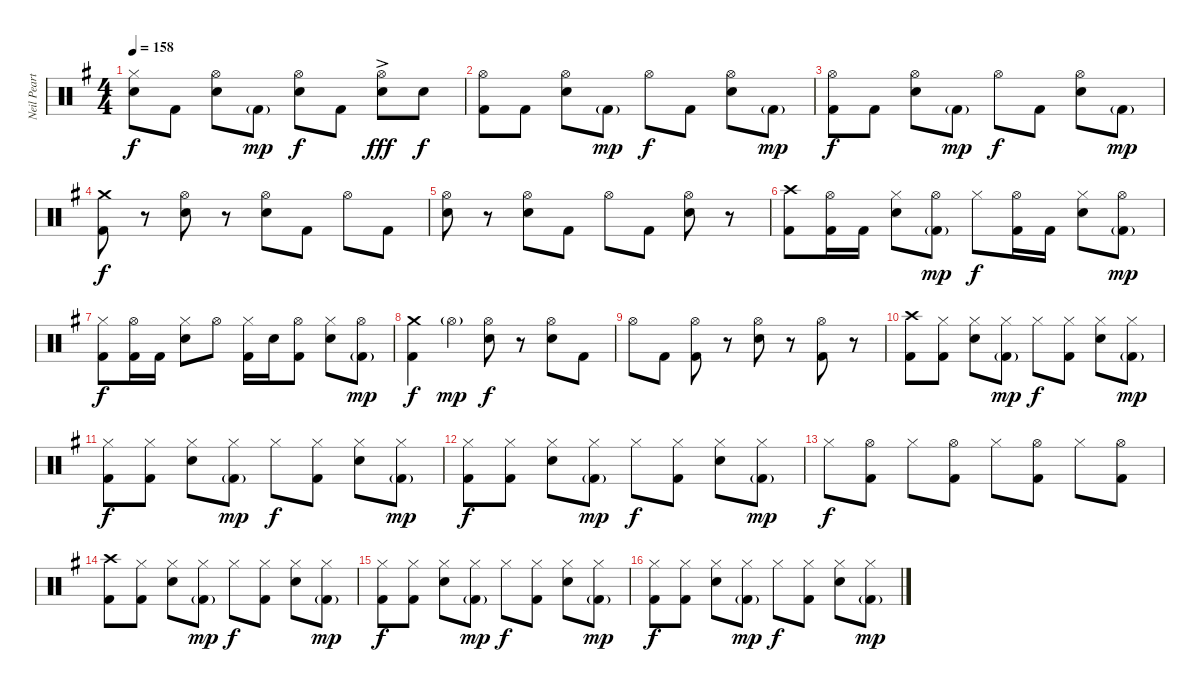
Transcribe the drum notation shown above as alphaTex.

\track ("Neil Peart (drums)" "Neil Peart") {instrument percussion}
\staff {score}
\articulation defaults
\ts (4 4)
\tempo 158
\clef neutral
\ks eminor
("Hi-Hat (closed)" "Electric Snare (hit)").8{dy f} "Kick (hit) 2".8 ("Hi-Hat (open)" "Electric Snare (hit)").8 "Kick (hit) 2"{g}.8{dy mp} ("Hi-Hat (open)" "Electric Snare (hit)").8{dy f} "Kick (hit) 2".8 ("Hi-Hat (open)"{ac} "Electric Snare (hit)").8{dy fff} "Electric Snare (hit)".8{dy f} |
("Hi-Hat (open)" "Kick (hit) 2").8 "Kick (hit) 2".8 ("Hi-Hat (open)" "Electric Snare (hit)").8 "Kick (hit) 2"{g}.8{dy mp} "Hi-Hat (open)".8{dy f} "Kick (hit) 2".8 ("Hi-Hat (open)" "Electric Snare (hit)").8 "Kick (hit) 2"{g}.8{dy mp} |
("Hi-Hat (open)" "Kick (hit) 2").8{dy f} "Kick (hit) 2".8 ("Hi-Hat (open)" "Electric Snare (hit)").8 "Kick (hit) 2"{g}.8{dy mp} "Hi-Hat (open)".8{dy f} "Kick (hit) 2".8 ("Hi-Hat (open)" "Electric Snare (hit)").8 "Kick (hit) 2"{g}.8{dy mp} |
("Crash medium (hit)" "Kick (hit) 2").8{dy f} r.8 ("Hi-Hat (open)" "Electric Snare (hit)").8 r.8 ("Hi-Hat (open)" "Electric Snare (hit)").8 "Kick (hit) 2".8 "Hi-Hat (open)".8 "Kick (hit) 2".8 |
("Hi-Hat (open)" "Electric Snare (hit)").8 r.8 ("Hi-Hat (open)" "Electric Snare (hit)").8 "Kick (hit) 2".8 "Hi-Hat (open)".8 "Kick (hit) 2".8 ("Hi-Hat (open)" "Electric Snare (hit)").8 r.8 |
("Crash high (hit)" "Kick (hit) 2").8 ("Hi-Hat (open)" "Kick (hit) 2").16 "Kick (hit) 2".16 ("Hi-Hat (closed)" "Electric Snare (hit)").8 ("Hi-Hat (open)" "Kick (hit) 2"{g}).8{dy mp} "Hi-Hat (closed)".8{dy f} ("Hi-Hat (open)" "Kick (hit) 2").16 "Kick (hit) 2".16 ("Hi-Hat (closed)" "Electric Snare (hit)").8 ("Hi-Hat (open)" "Kick (hit) 2"{g}).8{dy mp} |
("Hi-Hat (closed)" "Kick (hit) 2").8{dy f} ("Hi-Hat (open)" "Kick (hit) 2").16 "Kick (hit) 2".16 ("Hi-Hat (closed)" "Electric Snare (hit)").8 "Hi-Hat (open)".8 ("Hi-Hat (closed)" "Kick (hit) 2").16 "Electric Snare (hit)".16 ("Hi-Hat (open)" "Kick (hit) 2").8 ("Hi-Hat (closed)" "Electric Snare (hit)").8 ("Hi-Hat (open)" "Kick (hit) 2"{g}).8{dy mp} |
("Crash medium (hit)" "Kick (hit) 2").4{dy f} "Hi-Hat (open)"{g}.4{dy mp} ("Hi-Hat (open)" "Electric Snare (hit)").8{dy f} r.8 ("Hi-Hat (open)" "Electric Snare (hit)").8 "Kick (hit) 2".8 |
"Hi-Hat (open)".8 "Kick (hit) 2".8 ("Hi-Hat (open)" "Kick (hit) 2").8 r.8 ("Hi-Hat (open)" "Electric Snare (hit)").8 r.8 ("Hi-Hat (open)" "Kick (hit) 2").8 r.8 |
("Crash high (hit)" "Kick (hit) 2").8 ("Hi-Hat (closed)" "Kick (hit) 2").8 ("Hi-Hat (closed)" "Electric Snare (hit)").8 ("Hi-Hat (closed)" "Kick (hit) 2"{g}).8{dy mp} "Hi-Hat (closed)".8{dy f} ("Hi-Hat (closed)" "Kick (hit) 2").8 ("Hi-Hat (closed)" "Electric Snare (hit)").8 ("Hi-Hat (closed)" "Kick (hit) 2"{g}).8{dy mp} |
("Hi-Hat (closed)" "Kick (hit) 2").8{dy f} ("Hi-Hat (closed)" "Kick (hit) 2").8 ("Hi-Hat (closed)" "Electric Snare (hit)").8 ("Hi-Hat (closed)" "Kick (hit) 2"{g}).8{dy mp} "Hi-Hat (closed)".8{dy f} ("Hi-Hat (closed)" "Kick (hit) 2").8 ("Hi-Hat (closed)" "Electric Snare (hit)").8 ("Hi-Hat (closed)" "Kick (hit) 2"{g}).8{dy mp} |
("Hi-Hat (closed)" "Kick (hit) 2").8{dy f} ("Hi-Hat (closed)" "Kick (hit) 2").8 ("Hi-Hat (closed)" "Electric Snare (hit)").8 ("Hi-Hat (closed)" "Kick (hit) 2"{g}).8{dy mp} "Hi-Hat (closed)".8{dy f} ("Hi-Hat (closed)" "Kick (hit) 2").8 ("Hi-Hat (closed)" "Electric Snare (hit)").8 ("Hi-Hat (closed)" "Kick (hit) 2"{g}).8{dy mp} |
"Hi-Hat (closed)".8{dy f} ("Hi-Hat (open)" "Kick (hit) 2").8 "Hi-Hat (closed)".8 ("Hi-Hat (open)" "Kick (hit) 2").8 "Hi-Hat (closed)".8 ("Hi-Hat (open)" "Kick (hit) 2").8 "Hi-Hat (closed)".8 ("Hi-Hat (open)" "Kick (hit) 2").8 |
("Crash high (hit)" "Kick (hit) 2").8 ("Hi-Hat (closed)" "Kick (hit) 2").8 ("Hi-Hat (closed)" "Electric Snare (hit)").8 ("Hi-Hat (closed)" "Kick (hit) 2"{g}).8{dy mp} "Hi-Hat (closed)".8{dy f} ("Hi-Hat (closed)" "Kick (hit) 2").8 ("Hi-Hat (closed)" "Electric Snare (hit)").8 ("Hi-Hat (closed)" "Kick (hit) 2"{g}).8{dy mp} |
("Hi-Hat (closed)" "Kick (hit) 2").8{dy f} ("Hi-Hat (closed)" "Kick (hit) 2").8 ("Hi-Hat (closed)" "Electric Snare (hit)").8 ("Hi-Hat (closed)" "Kick (hit) 2"{g}).8{dy mp} "Hi-Hat (closed)".8{dy f} ("Hi-Hat (closed)" "Kick (hit) 2").8 ("Hi-Hat (closed)" "Electric Snare (hit)").8 ("Hi-Hat (closed)" "Kick (hit) 2"{g}).8{dy mp} |
("Hi-Hat (closed)" "Kick (hit) 2").8{dy f} ("Hi-Hat (closed)" "Kick (hit) 2").8 ("Hi-Hat (closed)" "Electric Snare (hit)").8 ("Hi-Hat (closed)" "Kick (hit) 2"{g}).8{dy mp} "Hi-Hat (closed)".8{dy f} ("Hi-Hat (closed)" "Kick (hit) 2").8 ("Hi-Hat (closed)" "Electric Snare (hit)").8 ("Hi-Hat (closed)" "Kick (hit) 2"{g}).8{dy mp}
